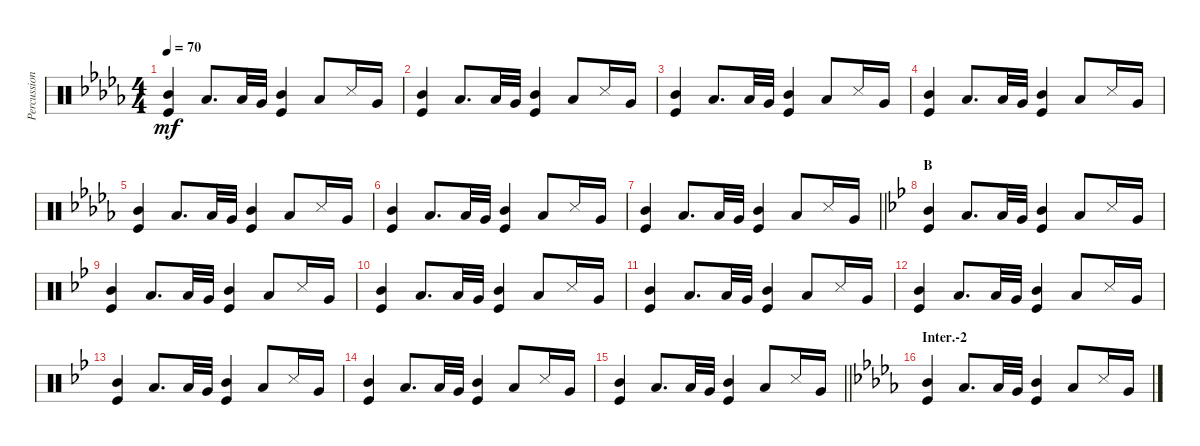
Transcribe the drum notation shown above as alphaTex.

\track ("Percussion (Tainaka Ritsu)" "Percussion") {instrument percussion}
\staff {score}
\articulation defaults
\ts (4 4)
\tempo 70
\clef neutral
\ks db
("Mid Tom (hit)" "Kick (hit)").4{dy mf} "Low Tom (hit)".8{d} "Low Floor Tom (hit)".32 "Very Low Tom (hit)".32 ("Mid Tom (hit)" "Kick (hit)").4 "Low Tom (hit)".8 "Snare (side stick) 3".16 "Very Low Tom (hit)".16 |
("Mid Tom (hit)" "Kick (hit)").4 "Low Tom (hit)".8{d} "Low Floor Tom (hit)".32 "Very Low Tom (hit)".32 ("Mid Tom (hit)" "Kick (hit)").4 "Low Tom (hit)".8 "Snare (side stick) 3".16 "Very Low Tom (hit)".16 |
("Mid Tom (hit)" "Kick (hit)").4 "Low Tom (hit)".8{d} "Low Floor Tom (hit)".32 "Very Low Tom (hit)".32 ("Mid Tom (hit)" "Kick (hit)").4 "Low Tom (hit)".8 "Snare (side stick) 3".16 "Very Low Tom (hit)".16 |
("Mid Tom (hit)" "Kick (hit)").4 "Low Tom (hit)".8{d} "Low Floor Tom (hit)".32 "Very Low Tom (hit)".32 ("Mid Tom (hit)" "Kick (hit)").4 "Low Tom (hit)".8 "Snare (side stick) 3".16 "Very Low Tom (hit)".16 |
("Mid Tom (hit)" "Kick (hit)").4 "Low Tom (hit)".8{d} "Low Floor Tom (hit)".32 "Very Low Tom (hit)".32 ("Mid Tom (hit)" "Kick (hit)").4 "Low Tom (hit)".8 "Snare (side stick) 3".16 "Very Low Tom (hit)".16 |
("Mid Tom (hit)" "Kick (hit)").4 "Low Tom (hit)".8{d} "Low Floor Tom (hit)".32 "Very Low Tom (hit)".32 ("Mid Tom (hit)" "Kick (hit)").4 "Low Tom (hit)".8 "Snare (side stick) 3".16 "Very Low Tom (hit)".16 |
\barLineRight lightlight
("Mid Tom (hit)" "Kick (hit)").4 "Low Tom (hit)".8{d} "Low Floor Tom (hit)".32 "Very Low Tom (hit)".32 ("Mid Tom (hit)" "Kick (hit)").4 "Low Tom (hit)".8 "Snare (side stick) 3".16 "Very Low Tom (hit)".16 |
\section ("" "B")
\ks bb
("Mid Tom (hit)" "Kick (hit)").4 "Low Tom (hit)".8{d} "Low Floor Tom (hit)".32 "Very Low Tom (hit)".32 ("Mid Tom (hit)" "Kick (hit)").4 "Low Tom (hit)".8 "Snare (side stick) 3".16 "Very Low Tom (hit)".16 |
("Mid Tom (hit)" "Kick (hit)").4 "Low Tom (hit)".8{d} "Low Floor Tom (hit)".32 "Very Low Tom (hit)".32 ("Mid Tom (hit)" "Kick (hit)").4 "Low Tom (hit)".8 "Snare (side stick) 3".16 "Very Low Tom (hit)".16 |
("Mid Tom (hit)" "Kick (hit)").4 "Low Tom (hit)".8{d} "Low Floor Tom (hit)".32 "Very Low Tom (hit)".32 ("Mid Tom (hit)" "Kick (hit)").4 "Low Tom (hit)".8 "Snare (side stick) 3".16 "Very Low Tom (hit)".16 |
("Mid Tom (hit)" "Kick (hit)").4 "Low Tom (hit)".8{d} "Low Floor Tom (hit)".32 "Very Low Tom (hit)".32 ("Mid Tom (hit)" "Kick (hit)").4 "Low Tom (hit)".8 "Snare (side stick) 3".16 "Very Low Tom (hit)".16 |
("Mid Tom (hit)" "Kick (hit)").4 "Low Tom (hit)".8{d} "Low Floor Tom (hit)".32 "Very Low Tom (hit)".32 ("Mid Tom (hit)" "Kick (hit)").4 "Low Tom (hit)".8 "Snare (side stick) 3".16 "Very Low Tom (hit)".16 |
("Mid Tom (hit)" "Kick (hit)").4 "Low Tom (hit)".8{d} "Low Floor Tom (hit)".32 "Very Low Tom (hit)".32 ("Mid Tom (hit)" "Kick (hit)").4 "Low Tom (hit)".8 "Snare (side stick) 3".16 "Very Low Tom (hit)".16 |
("Mid Tom (hit)" "Kick (hit)").4 "Low Tom (hit)".8{d} "Low Floor Tom (hit)".32 "Very Low Tom (hit)".32 ("Mid Tom (hit)" "Kick (hit)").4 "Low Tom (hit)".8 "Snare (side stick) 3".16 "Very Low Tom (hit)".16 |
\barLineRight lightlight
("Mid Tom (hit)" "Kick (hit)").4 "Low Tom (hit)".8{d} "Low Floor Tom (hit)".32 "Very Low Tom (hit)".32 ("Mid Tom (hit)" "Kick (hit)").4 "Low Tom (hit)".8 "Snare (side stick) 3".16 "Very Low Tom (hit)".16 |
\section ("" "Inter.-2")
\ks db
("Mid Tom (hit)" "Kick (hit)").4 "Low Tom (hit)".8{d} "Low Floor Tom (hit)".32 "Very Low Tom (hit)".32 ("Mid Tom (hit)" "Kick (hit)").4 "Low Tom (hit)".8 "Snare (side stick) 3".16 "Very Low Tom (hit)".16
